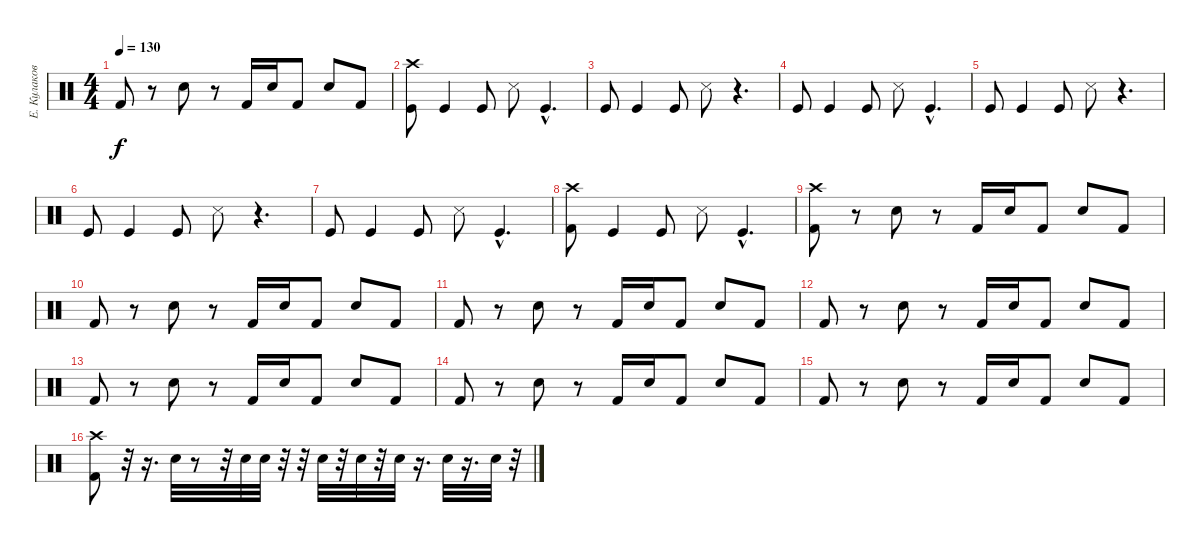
\track ("Е. Кулаков" "Е. Кулаков") {instrument percussion}
\staff {score}
\articulation defaults
\ts (4 4)
\tempo 130
\clef neutral
\ks c "Kick (hit) 2".8{dy f}
r.8 "Electric Snare (hit)".8 r.8 "Kick (hit) 2".16 "Electric Snare (hit)".16 "Kick (hit) 2".8 "Electric Snare (hit)".8 "Kick (hit) 2".8 |
("Crash high (hit)" "Kick (hit)").8 "Kick (hit)".4 "Kick (hit)".8 "Snare (side stick) 3".8 "Kick (hit)"{hac}.4{d} |
"Kick (hit)".8 "Kick (hit)".4 "Kick (hit)".8 "Snare (side stick) 3".8 r.4{d} |
"Kick (hit)".8 "Kick (hit)".4 "Kick (hit)".8 "Snare (side stick) 3".8 "Kick (hit)"{hac}.4{d} |
"Kick (hit)".8 "Kick (hit)".4 "Kick (hit)".8 "Snare (side stick) 3".8 r.4{d} |
"Kick (hit)".8 "Kick (hit)".4 "Kick (hit)".8 "Snare (side stick) 3".8 r.4{d} |
"Kick (hit)".8 "Kick (hit)".4 "Kick (hit)".8 "Snare (side stick) 3".8 "Kick (hit)"{hac}.4{d} |
("Crash high (hit)" "Kick (hit) 2").8 "Kick (hit)".4 "Kick (hit)".8 "Snare (side stick) 3".8 "Kick (hit)"{hac}.4{d} |
("Crash high (hit)" "Kick (hit) 2").8 r.8 "Electric Snare (hit)".8 r.8 "Kick (hit) 2".16 "Electric Snare (hit)".16 "Kick (hit) 2".8 "Electric Snare (hit)".8 "Kick (hit) 2".8 |
"Kick (hit) 2".8 r.8 "Electric Snare (hit)".8 r.8 "Kick (hit) 2".16 "Electric Snare (hit)".16 "Kick (hit) 2".8 "Electric Snare (hit)".8 "Kick (hit) 2".8 |
"Kick (hit) 2".8 r.8 "Electric Snare (hit)".8 r.8 "Kick (hit) 2".16 "Electric Snare (hit)".16 "Kick (hit) 2".8 "Electric Snare (hit)".8 "Kick (hit) 2".8 |
"Kick (hit) 2".8 r.8 "Electric Snare (hit)".8 r.8 "Kick (hit) 2".16 "Electric Snare (hit)".16 "Kick (hit) 2".8 "Electric Snare (hit)".8 "Kick (hit) 2".8 |
"Kick (hit) 2".8 r.8 "Electric Snare (hit)".8 r.8 "Kick (hit) 2".16 "Electric Snare (hit)".16 "Kick (hit) 2".8 "Electric Snare (hit)".8 "Kick (hit) 2".8 |
"Kick (hit) 2".8 r.8 "Electric Snare (hit)".8 r.8 "Kick (hit) 2".16 "Electric Snare (hit)".16 "Kick (hit) 2".8 "Electric Snare (hit)".8 "Kick (hit) 2".8 |
"Kick (hit) 2".8 r.8 "Electric Snare (hit)".8 r.8 "Kick (hit) 2".16 "Electric Snare (hit)".16 "Kick (hit) 2".8 "Electric Snare (hit)".8 "Kick (hit) 2".8 |
("Kick (hit) 2" "Crash high (hit)").8 r.32 r.16{d} "Electric Snare (hit)".32 r.8 r.32 "Electric Snare (hit)".32 "Electric Snare (hit)".32 r.32 r.32 "Electric Snare (hit)".32 r.32 "Electric Snare (hit)".32 r.32 "Electric Snare (hit)".32 r.16{d} "Electric Snare (hit)".32 r.16{d} "Electric Snare (hit)".32 r.32
